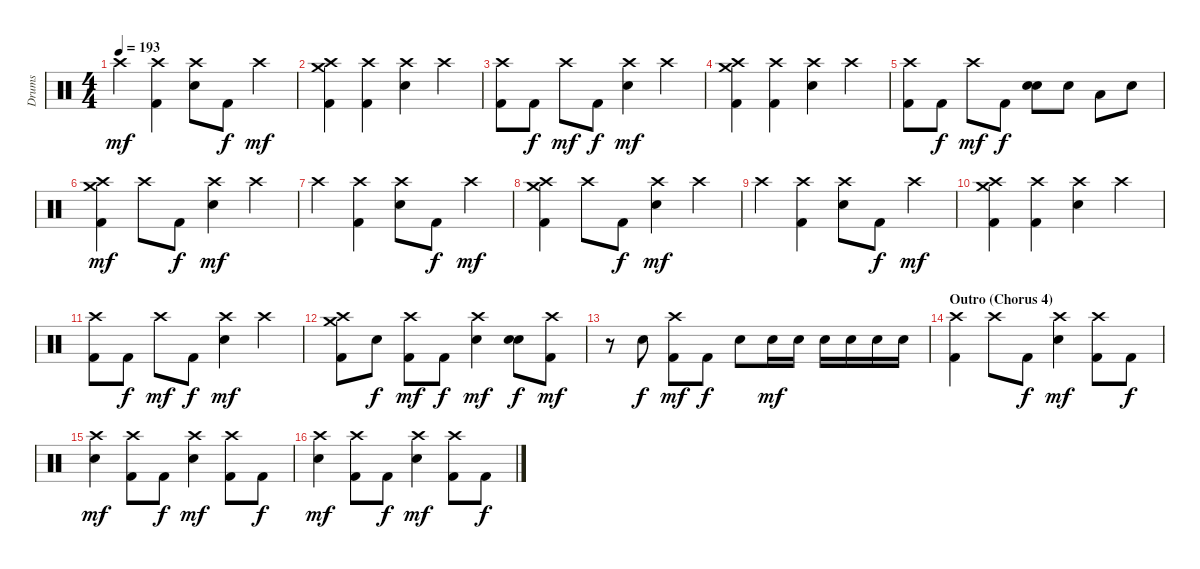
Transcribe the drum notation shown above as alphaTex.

\track ("Drums" "Drums") {instrument percussion}
\staff {score}
\articulation defaults
\ts (4 4)
\tempo 193
\clef neutral
\ks c "Crash high (hit)".4{dy mf}
("Crash high (hit)" "Kick (hit) 2").4 ("Crash high (hit)" "Electric Snare (hit)").8 "Kick (hit) 2".8{dy f} "Crash high (hit)".4{dy mf} |
("Crash high (hit)" "Crash medium (hit)" "Kick (hit) 2").4 ("Crash high (hit)" "Kick (hit) 2").4 ("Crash high (hit)" "Electric Snare (hit)").4 "Crash high (hit)".4 |
("Crash high (hit)" "Kick (hit) 2").8 "Kick (hit) 2".8{dy f} "Crash high (hit)".8{dy mf} "Kick (hit) 2".8{dy f} ("Crash high (hit)" "Electric Snare (hit)").4{dy mf} "Crash high (hit)".4 |
("Crash high (hit)" "Crash medium (hit)" "Kick (hit) 2").4 ("Crash high (hit)" "Kick (hit) 2").4 ("Crash high (hit)" "Electric Snare (hit)").4 "Crash high (hit)".4 |
("Crash high (hit)" "Kick (hit) 2").8 "Kick (hit) 2".8{dy f} "Crash high (hit)".8{dy mf} "Kick (hit) 2".8{dy f} ("Electric Snare (hit)" "Electric Snare (hit)").8{bd 120} "Electric Snare (hit)".8 "Low Tom (hit)".8 "Electric Snare (hit)".8 |
("Crash high (hit)" "Crash medium (hit)" "Kick (hit) 2").4{dy mf} "Crash high (hit)".8 "Kick (hit) 2".8{dy f} ("Crash high (hit)" "Electric Snare (hit)").4{dy mf} "Crash high (hit)".4 |
"Crash high (hit)".4 ("Crash high (hit)" "Kick (hit) 2").4 ("Crash high (hit)" "Electric Snare (hit)").8 "Kick (hit) 2".8{dy f} "Crash high (hit)".4{dy mf} |
("Crash high (hit)" "Crash medium (hit)" "Kick (hit) 2").4 "Crash high (hit)".8 "Kick (hit) 2".8{dy f} ("Crash high (hit)" "Electric Snare (hit)").4{dy mf} "Crash high (hit)".4 |
"Crash high (hit)".4 ("Crash high (hit)" "Kick (hit) 2").4 ("Crash high (hit)" "Electric Snare (hit)").8 "Kick (hit) 2".8{dy f} "Crash high (hit)".4{dy mf} |
("Crash high (hit)" "Crash medium (hit)" "Kick (hit) 2").4 ("Crash high (hit)" "Kick (hit) 2").4 ("Crash high (hit)" "Electric Snare (hit)").4 "Crash high (hit)".4 |
("Crash high (hit)" "Kick (hit) 2").8 "Kick (hit) 2".8{dy f} "Crash high (hit)".8{dy mf} "Kick (hit) 2".8{dy f} ("Crash high (hit)" "Electric Snare (hit)").4{dy mf} "Crash high (hit)".4 |
("Crash high (hit)" "Crash medium (hit)" "Kick (hit) 2").8 "Electric Snare (hit)".8{dy f} ("Crash high (hit)" "Kick (hit) 2").8{dy mf} "Kick (hit) 2".8{dy f} ("Crash high (hit)" "Electric Snare (hit)").4{dy mf} ("Electric Snare (hit)" "Electric Snare (hit)").8{bd 120 dy f} ("Crash high (hit)" "Kick (hit) 2").8{dy mf} |
r.8 "Electric Snare (hit)".8{dy f} ("Crash high (hit)" "Kick (hit) 2").8{dy mf} "Kick (hit) 2".8{dy f} "Electric Snare (hit)".8 "Electric Snare (hit)".16{dy mf} "Electric Snare (hit)".16 "Electric Snare (hit)".16 "Electric Snare (hit)".16 "Electric Snare (hit)".16 "Electric Snare (hit)".16 |
\section ("" "Outro (Chorus 4)")
("Crash high (hit)" "Kick (hit) 2").4 "Crash high (hit)".8 "Kick (hit) 2".8{dy f} ("Crash high (hit)" "Electric Snare (hit)").4{dy mf} ("Crash high (hit)" "Kick (hit) 2").8 "Kick (hit) 2".8{dy f} |
("Crash high (hit)" "Electric Snare (hit)").4{dy mf} ("Crash high (hit)" "Kick (hit) 2").8 "Kick (hit) 2".8{dy f} ("Crash high (hit)" "Electric Snare (hit)").4{dy mf} ("Crash high (hit)" "Kick (hit) 2").8 "Kick (hit) 2".8{dy f} |
("Crash high (hit)" "Electric Snare (hit)").4{dy mf} ("Crash high (hit)" "Kick (hit) 2").8 "Kick (hit) 2".8{dy f} ("Crash high (hit)" "Electric Snare (hit)").4{dy mf} ("Crash high (hit)" "Kick (hit) 2").8 "Kick (hit) 2".8{dy f}
